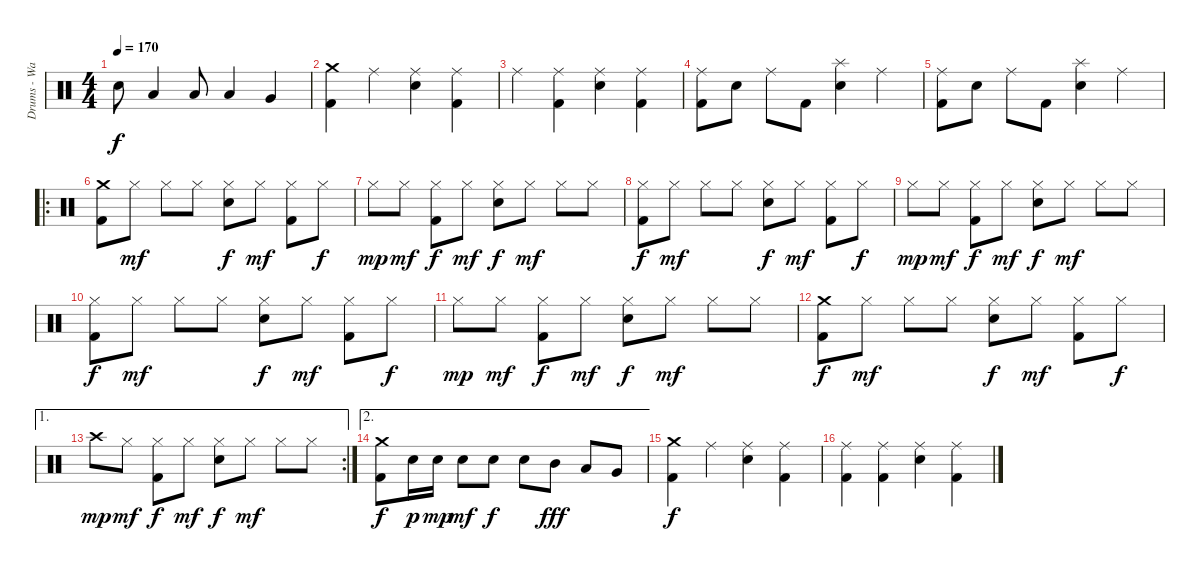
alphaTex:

\track ("Drums - Ward" "Drums - Wa") {instrument percussion}
\staff {score}
\articulation defaults
\ts (4 4)
\tempo 170
\clef neutral
\ks c "Electric Snare (hit)".8{dy f} "Low Tom (hit)".4 "Low Tom (hit)".8 "Low Tom (hit)".4 "Very Low Tom (hit)".4
|
("Crash medium (hit)" "Kick (hit) 2").4 "Ride (middle)".4 ("Ride (middle)" "Electric Snare (hit)").4 ("Ride (middle)" "Kick (hit) 2").4 |
"Ride (middle)".4 ("Ride (middle)" "Kick (hit) 2").4 ("Ride (middle)" "Electric Snare (hit)").4 ("Ride (middle)" "Kick (hit) 2").4 |
("Ride (middle)" "Kick (hit) 2").8 "Electric Snare (hit)".8 "Ride (middle)".8 "Kick (hit) 2".8 ("Splash (hit)" "Electric Snare (hit)").4 "Ride (middle)".4 |
("Ride (middle)" "Kick (hit) 2").8 "Electric Snare (hit)".8 "Ride (middle)".8 "Kick (hit) 2".8 ("Splash (hit)" "Electric Snare (hit)").4 "Ride (middle)".4 |
\ro
("Crash medium (hit)" "Kick (hit) 2").8 "Hi-Hat (closed)".8{dy mf} "Hi-Hat (closed)".8 "Hi-Hat (closed)".8 ("Hi-Hat (closed)" "Electric Snare (hit)").8{dy f} "Hi-Hat (closed)".8{dy mf} ("Hi-Hat (closed)" "Kick (hit) 2").8 "Hi-Hat (closed)".8{dy f} |
"Hi-Hat (closed)".8{dy mp} "Hi-Hat (closed)".8{dy mf} ("Hi-Hat (closed)" "Kick (hit) 2").8{dy f} "Hi-Hat (closed)".8{dy mf} ("Hi-Hat (closed)" "Electric Snare (hit)").8{dy f} "Hi-Hat (closed)".8{dy mf} "Hi-Hat (closed)".8 "Hi-Hat (closed)".8 |
("Hi-Hat (closed)" "Kick (hit) 2").8{dy f} "Hi-Hat (closed)".8{dy mf} "Hi-Hat (closed)".8 "Hi-Hat (closed)".8 ("Hi-Hat (closed)" "Electric Snare (hit)").8{dy f} "Hi-Hat (closed)".8{dy mf} ("Hi-Hat (closed)" "Kick (hit) 2").8 "Hi-Hat (closed)".8{dy f} |
"Hi-Hat (closed)".8{dy mp} "Hi-Hat (closed)".8{dy mf} ("Hi-Hat (closed)" "Kick (hit) 2").8{dy f} "Hi-Hat (closed)".8{dy mf} ("Hi-Hat (closed)" "Electric Snare (hit)").8{dy f} "Hi-Hat (closed)".8{dy mf} "Hi-Hat (closed)".8 "Hi-Hat (closed)".8 |
("Hi-Hat (closed)" "Kick (hit) 2").8{dy f} "Hi-Hat (closed)".8{dy mf} "Hi-Hat (closed)".8 "Hi-Hat (closed)".8 ("Hi-Hat (closed)" "Electric Snare (hit)").8{dy f} "Hi-Hat (closed)".8{dy mf} ("Hi-Hat (closed)" "Kick (hit) 2").8 "Hi-Hat (closed)".8{dy f} |
"Hi-Hat (closed)".8{dy mp} "Hi-Hat (closed)".8{dy mf} ("Hi-Hat (closed)" "Kick (hit) 2").8{dy f} "Hi-Hat (closed)".8{dy mf} ("Hi-Hat (closed)" "Electric Snare (hit)").8{dy f} "Hi-Hat (closed)".8{dy mf} "Hi-Hat (closed)".8 "Hi-Hat (closed)".8 |
("Crash medium (hit)" "Kick (hit) 2").8{dy f} "Hi-Hat (closed)".8{dy mf} "Hi-Hat (closed)".8 "Hi-Hat (closed)".8 ("Hi-Hat (closed)" "Electric Snare (hit)").8{dy f} "Hi-Hat (closed)".8{dy mf} ("Hi-Hat (closed)" "Kick (hit) 2").8 "Hi-Hat (closed)".8{dy f} |
\ae 1
\rc 2 "Crash high (hit)".8{dy mp} "Hi-Hat (closed)".8{dy mf}
("Hi-Hat (closed)" "Kick (hit) 2").8{dy f} "Hi-Hat (closed)".8{dy mf} ("Hi-Hat (closed)" "Electric Snare (hit)").8{dy f} "Hi-Hat (closed)".8{dy mf} "Hi-Hat (closed)".8 "Hi-Hat (closed)".8 |
\ae 2
("Crash medium (hit)" "Kick (hit) 2").8{dy f} "Electric Snare (hit)".16{dy p} "Electric Snare (hit)".16{dy mp} "Electric Snare (hit)".8{dy mf} "Electric Snare (hit)".8{dy f} "Electric Snare (hit)".8 "Mid Tom (hit)".8{dy fff} "Low Tom (hit)".8 "Very Low Tom (hit)".8 |
("Crash medium (hit)" "Kick (hit) 2").4{dy f} "Ride (middle)".4 ("Ride (middle)" "Electric Snare (hit)").4 ("Ride (middle)" "Kick (hit) 2").4 |
("Ride (middle)" "Kick (hit) 2").4 ("Ride (middle)" "Kick (hit) 2").4 ("Ride (middle)" "Electric Snare (hit)").4 ("Ride (middle)" "Kick (hit) 2").4
